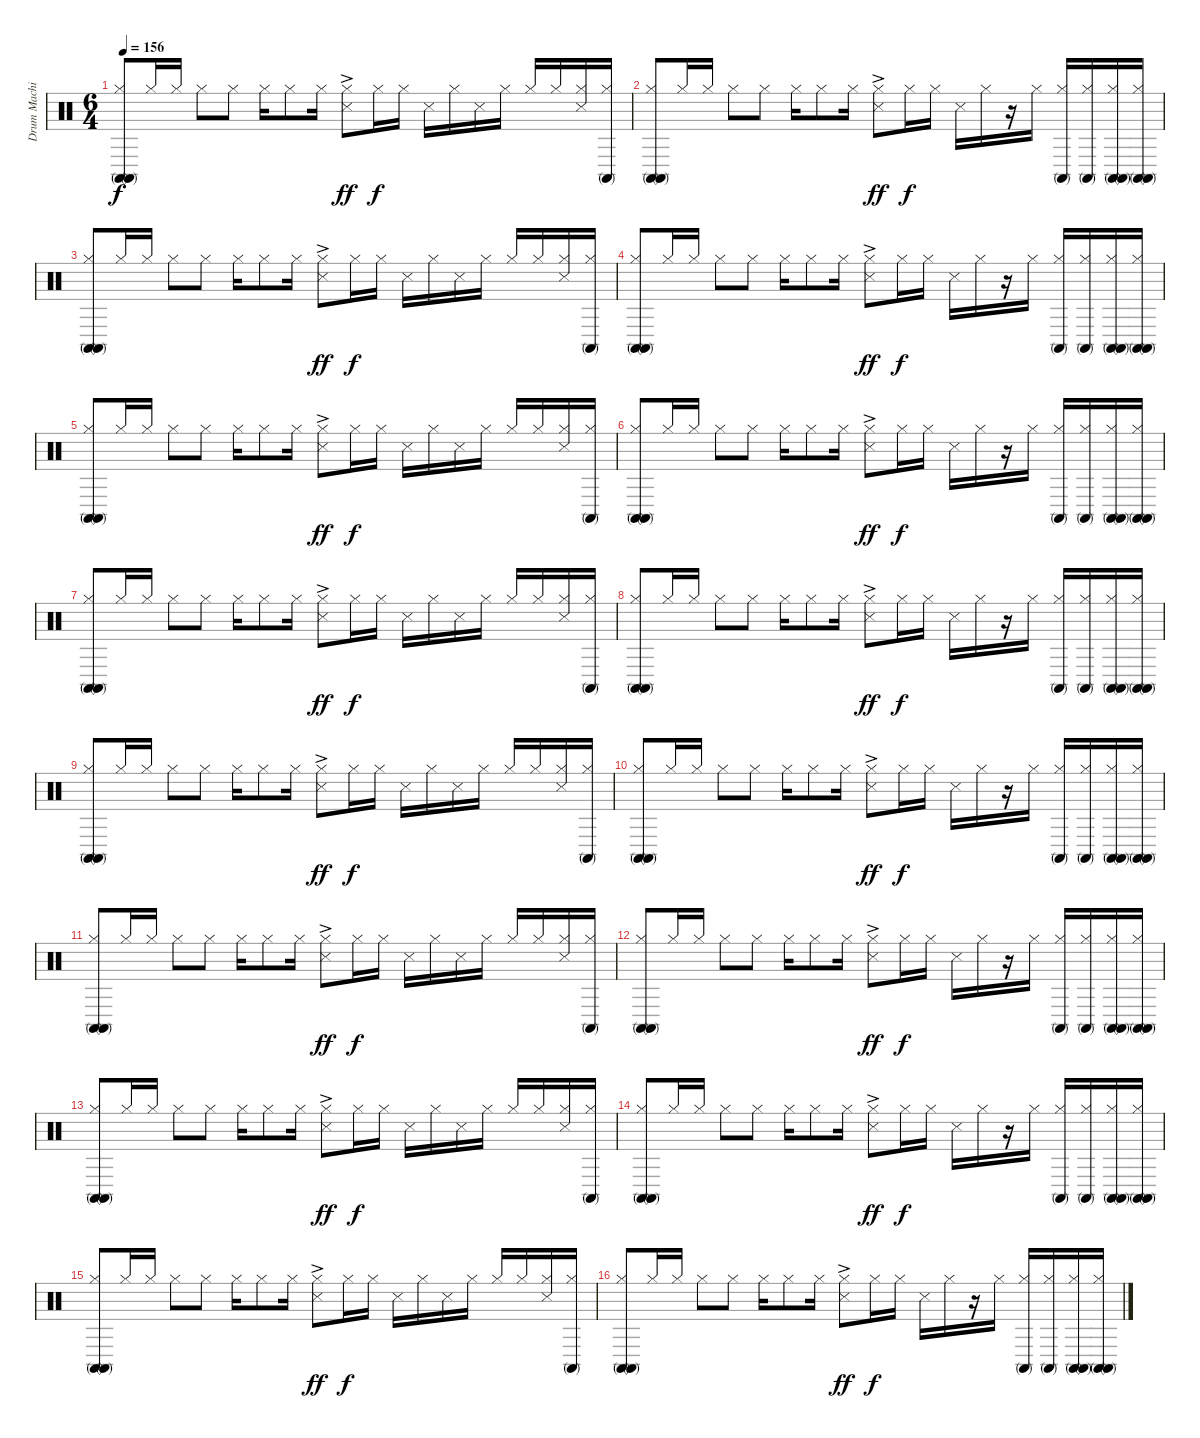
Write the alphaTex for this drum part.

\track ("Drum Machine" "Drum Machi") {instrument percussion bank 210}
\staff {score}
\articulation defaults
\ts (6 4)
\tempo 156
\clef neutral
\ks c
("Hi-Hat (closed)" "Conga high (mute)" "Conga high (mute)").8{dy f} "Hi-Hat (closed)".16 "Hi-Hat (closed)".16 "Hi-Hat (closed)".8 "Hi-Hat (closed)".8 "Hi-Hat (closed)".16 "Hi-Hat (closed)".8 "Hi-Hat (closed)".16 ("Hi-Hat (closed)"{ac} "Snare (side stick) 3").8{dy ff} "Hi-Hat (closed)".16{dy f} "Hi-Hat (closed)".16 "Snare (side stick) 3".16 "Hi-Hat (closed)".16 "Snare (side stick) 3".16 "Hi-Hat (closed)".16 "Hi-Hat (closed)".16 "Hi-Hat (closed)".16 ("Hi-Hat (closed)" "Snare (side stick) 3").16 ("Hi-Hat (closed)" "Conga high (mute)").16 |
("Hi-Hat (closed)" "Conga high (mute)" "Conga high (mute)").8 "Hi-Hat (closed)".16 "Hi-Hat (closed)".16 "Hi-Hat (closed)".8 "Hi-Hat (closed)".8 "Hi-Hat (closed)".16 "Hi-Hat (closed)".8 "Hi-Hat (closed)".16 ("Hi-Hat (closed)"{ac} "Snare (side stick) 3").8{dy ff} "Hi-Hat (closed)".16{dy f} "Hi-Hat (closed)".16 "Snare (side stick) 3".16 "Hi-Hat (closed)".16 r.16 "Hi-Hat (closed)".16 ("Hi-Hat (closed)" "Conga high (mute)").16 ("Hi-Hat (closed)" "Conga high (mute)").16 ("Hi-Hat (closed)" "Conga high (mute)" "Conga high (mute)").16 ("Hi-Hat (closed)" "Conga high (mute)" "Conga high (mute)").16 |
("Hi-Hat (closed)" "Conga high (mute)" "Conga high (mute)").8 "Hi-Hat (closed)".16 "Hi-Hat (closed)".16 "Hi-Hat (closed)".8 "Hi-Hat (closed)".8 "Hi-Hat (closed)".16 "Hi-Hat (closed)".8 "Hi-Hat (closed)".16 ("Hi-Hat (closed)"{ac} "Snare (side stick) 3").8{dy ff} "Hi-Hat (closed)".16{dy f} "Hi-Hat (closed)".16 "Snare (side stick) 3".16 "Hi-Hat (closed)".16 "Snare (side stick) 3".16 "Hi-Hat (closed)".16 "Hi-Hat (closed)".16 "Hi-Hat (closed)".16 ("Hi-Hat (closed)" "Snare (side stick) 3").16 ("Hi-Hat (closed)" "Conga high (mute)").16 |
("Hi-Hat (closed)" "Conga high (mute)" "Conga high (mute)").8 "Hi-Hat (closed)".16 "Hi-Hat (closed)".16 "Hi-Hat (closed)".8 "Hi-Hat (closed)".8 "Hi-Hat (closed)".16 "Hi-Hat (closed)".8 "Hi-Hat (closed)".16 ("Hi-Hat (closed)"{ac} "Snare (side stick) 3").8{dy ff} "Hi-Hat (closed)".16{dy f} "Hi-Hat (closed)".16 "Snare (side stick) 3".16 "Hi-Hat (closed)".16 r.16 "Hi-Hat (closed)".16 ("Hi-Hat (closed)" "Conga high (mute)").16 ("Hi-Hat (closed)" "Conga high (mute)").16 ("Hi-Hat (closed)" "Conga high (mute)" "Conga high (mute)").16 ("Hi-Hat (closed)" "Conga high (mute)" "Conga high (mute)").16 |
("Hi-Hat (closed)" "Conga high (mute)" "Conga high (mute)").8 "Hi-Hat (closed)".16 "Hi-Hat (closed)".16 "Hi-Hat (closed)".8 "Hi-Hat (closed)".8 "Hi-Hat (closed)".16 "Hi-Hat (closed)".8 "Hi-Hat (closed)".16 ("Hi-Hat (closed)"{ac} "Snare (side stick) 3").8{dy ff} "Hi-Hat (closed)".16{dy f} "Hi-Hat (closed)".16 "Snare (side stick) 3".16 "Hi-Hat (closed)".16 "Snare (side stick) 3".16 "Hi-Hat (closed)".16 "Hi-Hat (closed)".16 "Hi-Hat (closed)".16 ("Hi-Hat (closed)" "Snare (side stick) 3").16 ("Hi-Hat (closed)" "Conga high (mute)").16 |
("Hi-Hat (closed)" "Conga high (mute)" "Conga high (mute)").8 "Hi-Hat (closed)".16 "Hi-Hat (closed)".16 "Hi-Hat (closed)".8 "Hi-Hat (closed)".8 "Hi-Hat (closed)".16 "Hi-Hat (closed)".8 "Hi-Hat (closed)".16 ("Hi-Hat (closed)"{ac} "Snare (side stick) 3").8{dy ff} "Hi-Hat (closed)".16{dy f} "Hi-Hat (closed)".16 "Snare (side stick) 3".16 "Hi-Hat (closed)".16 r.16 "Hi-Hat (closed)".16 ("Hi-Hat (closed)" "Conga high (mute)").16 ("Hi-Hat (closed)" "Conga high (mute)").16 ("Hi-Hat (closed)" "Conga high (mute)" "Conga high (mute)").16 ("Hi-Hat (closed)" "Conga high (mute)" "Conga high (mute)").16 |
("Hi-Hat (closed)" "Conga high (mute)" "Conga high (mute)").8 "Hi-Hat (closed)".16 "Hi-Hat (closed)".16 "Hi-Hat (closed)".8 "Hi-Hat (closed)".8 "Hi-Hat (closed)".16 "Hi-Hat (closed)".8 "Hi-Hat (closed)".16 ("Hi-Hat (closed)"{ac} "Snare (side stick) 3").8{dy ff} "Hi-Hat (closed)".16{dy f} "Hi-Hat (closed)".16 "Snare (side stick) 3".16 "Hi-Hat (closed)".16 "Snare (side stick) 3".16 "Hi-Hat (closed)".16 "Hi-Hat (closed)".16 "Hi-Hat (closed)".16 ("Hi-Hat (closed)" "Snare (side stick) 3").16 ("Hi-Hat (closed)" "Conga high (mute)").16 |
("Hi-Hat (closed)" "Conga high (mute)" "Conga high (mute)").8 "Hi-Hat (closed)".16 "Hi-Hat (closed)".16 "Hi-Hat (closed)".8 "Hi-Hat (closed)".8 "Hi-Hat (closed)".16 "Hi-Hat (closed)".8 "Hi-Hat (closed)".16 ("Hi-Hat (closed)"{ac} "Snare (side stick) 3").8{dy ff} "Hi-Hat (closed)".16{dy f} "Hi-Hat (closed)".16 "Snare (side stick) 3".16 "Hi-Hat (closed)".16 r.16 "Hi-Hat (closed)".16 ("Hi-Hat (closed)" "Conga high (mute)").16 ("Hi-Hat (closed)" "Conga high (mute)").16 ("Hi-Hat (closed)" "Conga high (mute)" "Conga high (mute)").16 ("Hi-Hat (closed)" "Conga high (mute)" "Conga high (mute)").16 |
("Hi-Hat (closed)" "Conga high (mute)" "Conga high (mute)").8 "Hi-Hat (closed)".16 "Hi-Hat (closed)".16 "Hi-Hat (closed)".8 "Hi-Hat (closed)".8 "Hi-Hat (closed)".16 "Hi-Hat (closed)".8 "Hi-Hat (closed)".16 ("Hi-Hat (closed)"{ac} "Snare (side stick) 3").8{dy ff} "Hi-Hat (closed)".16{dy f} "Hi-Hat (closed)".16 "Snare (side stick) 3".16 "Hi-Hat (closed)".16 "Snare (side stick) 3".16 "Hi-Hat (closed)".16 "Hi-Hat (closed)".16 "Hi-Hat (closed)".16 ("Hi-Hat (closed)" "Snare (side stick) 3").16 ("Hi-Hat (closed)" "Conga high (mute)").16 |
("Hi-Hat (closed)" "Conga high (mute)" "Conga high (mute)").8 "Hi-Hat (closed)".16 "Hi-Hat (closed)".16 "Hi-Hat (closed)".8 "Hi-Hat (closed)".8 "Hi-Hat (closed)".16 "Hi-Hat (closed)".8 "Hi-Hat (closed)".16 ("Hi-Hat (closed)"{ac} "Snare (side stick) 3").8{dy ff} "Hi-Hat (closed)".16{dy f} "Hi-Hat (closed)".16 "Snare (side stick) 3".16 "Hi-Hat (closed)".16 r.16 "Hi-Hat (closed)".16 ("Hi-Hat (closed)" "Conga high (mute)").16 ("Hi-Hat (closed)" "Conga high (mute)").16 ("Hi-Hat (closed)" "Conga high (mute)" "Conga high (mute)").16 ("Hi-Hat (closed)" "Conga high (mute)" "Conga high (mute)").16 |
("Hi-Hat (closed)" "Conga high (mute)" "Conga high (mute)").8 "Hi-Hat (closed)".16 "Hi-Hat (closed)".16 "Hi-Hat (closed)".8 "Hi-Hat (closed)".8 "Hi-Hat (closed)".16 "Hi-Hat (closed)".8 "Hi-Hat (closed)".16 ("Hi-Hat (closed)"{ac} "Snare (side stick) 3").8{dy ff} "Hi-Hat (closed)".16{dy f} "Hi-Hat (closed)".16 "Snare (side stick) 3".16 "Hi-Hat (closed)".16 "Snare (side stick) 3".16 "Hi-Hat (closed)".16 "Hi-Hat (closed)".16 "Hi-Hat (closed)".16 ("Hi-Hat (closed)" "Snare (side stick) 3").16 ("Hi-Hat (closed)" "Conga high (mute)").16 |
("Hi-Hat (closed)" "Conga high (mute)" "Conga high (mute)").8 "Hi-Hat (closed)".16 "Hi-Hat (closed)".16 "Hi-Hat (closed)".8 "Hi-Hat (closed)".8 "Hi-Hat (closed)".16 "Hi-Hat (closed)".8 "Hi-Hat (closed)".16 ("Hi-Hat (closed)"{ac} "Snare (side stick) 3").8{dy ff} "Hi-Hat (closed)".16{dy f} "Hi-Hat (closed)".16 "Snare (side stick) 3".16 "Hi-Hat (closed)".16 r.16 "Hi-Hat (closed)".16 ("Hi-Hat (closed)" "Conga high (mute)").16 ("Hi-Hat (closed)" "Conga high (mute)").16 ("Hi-Hat (closed)" "Conga high (mute)" "Conga high (mute)").16 ("Hi-Hat (closed)" "Conga high (mute)" "Conga high (mute)").16 |
("Hi-Hat (closed)" "Conga high (mute)" "Conga high (mute)").8 "Hi-Hat (closed)".16 "Hi-Hat (closed)".16 "Hi-Hat (closed)".8 "Hi-Hat (closed)".8 "Hi-Hat (closed)".16 "Hi-Hat (closed)".8 "Hi-Hat (closed)".16 ("Hi-Hat (closed)"{ac} "Snare (side stick) 3").8{dy ff} "Hi-Hat (closed)".16{dy f} "Hi-Hat (closed)".16 "Snare (side stick) 3".16 "Hi-Hat (closed)".16 "Snare (side stick) 3".16 "Hi-Hat (closed)".16 "Hi-Hat (closed)".16 "Hi-Hat (closed)".16 ("Hi-Hat (closed)" "Snare (side stick) 3").16 ("Hi-Hat (closed)" "Conga high (mute)").16 |
("Hi-Hat (closed)" "Conga high (mute)" "Conga high (mute)").8 "Hi-Hat (closed)".16 "Hi-Hat (closed)".16 "Hi-Hat (closed)".8 "Hi-Hat (closed)".8 "Hi-Hat (closed)".16 "Hi-Hat (closed)".8 "Hi-Hat (closed)".16 ("Hi-Hat (closed)"{ac} "Snare (side stick) 3").8{dy ff} "Hi-Hat (closed)".16{dy f} "Hi-Hat (closed)".16 "Snare (side stick) 3".16 "Hi-Hat (closed)".16 r.16 "Hi-Hat (closed)".16 ("Hi-Hat (closed)" "Conga high (mute)").16 ("Hi-Hat (closed)" "Conga high (mute)").16 ("Hi-Hat (closed)" "Conga high (mute)" "Conga high (mute)").16 ("Hi-Hat (closed)" "Conga high (mute)" "Conga high (mute)").16 |
("Hi-Hat (closed)" "Conga high (mute)" "Conga high (mute)").8 "Hi-Hat (closed)".16 "Hi-Hat (closed)".16 "Hi-Hat (closed)".8 "Hi-Hat (closed)".8 "Hi-Hat (closed)".16 "Hi-Hat (closed)".8 "Hi-Hat (closed)".16 ("Hi-Hat (closed)"{ac} "Snare (side stick) 3").8{dy ff} "Hi-Hat (closed)".16{dy f} "Hi-Hat (closed)".16 "Snare (side stick) 3".16 "Hi-Hat (closed)".16 "Snare (side stick) 3".16 "Hi-Hat (closed)".16 "Hi-Hat (closed)".16 "Hi-Hat (closed)".16 ("Hi-Hat (closed)" "Snare (side stick) 3").16 ("Hi-Hat (closed)" "Conga high (mute)").16 |
("Hi-Hat (closed)" "Conga high (mute)" "Conga high (mute)").8 "Hi-Hat (closed)".16 "Hi-Hat (closed)".16 "Hi-Hat (closed)".8 "Hi-Hat (closed)".8 "Hi-Hat (closed)".16 "Hi-Hat (closed)".8 "Hi-Hat (closed)".16 ("Hi-Hat (closed)"{ac} "Snare (side stick) 3").8{dy ff} "Hi-Hat (closed)".16{dy f} "Hi-Hat (closed)".16 "Snare (side stick) 3".16 "Hi-Hat (closed)".16 r.16 "Hi-Hat (closed)".16 ("Hi-Hat (closed)" "Conga high (mute)").16 ("Hi-Hat (closed)" "Conga high (mute)").16 ("Hi-Hat (closed)" "Conga high (mute)" "Conga high (mute)").16 ("Hi-Hat (closed)" "Conga high (mute)" "Conga high (mute)").16
